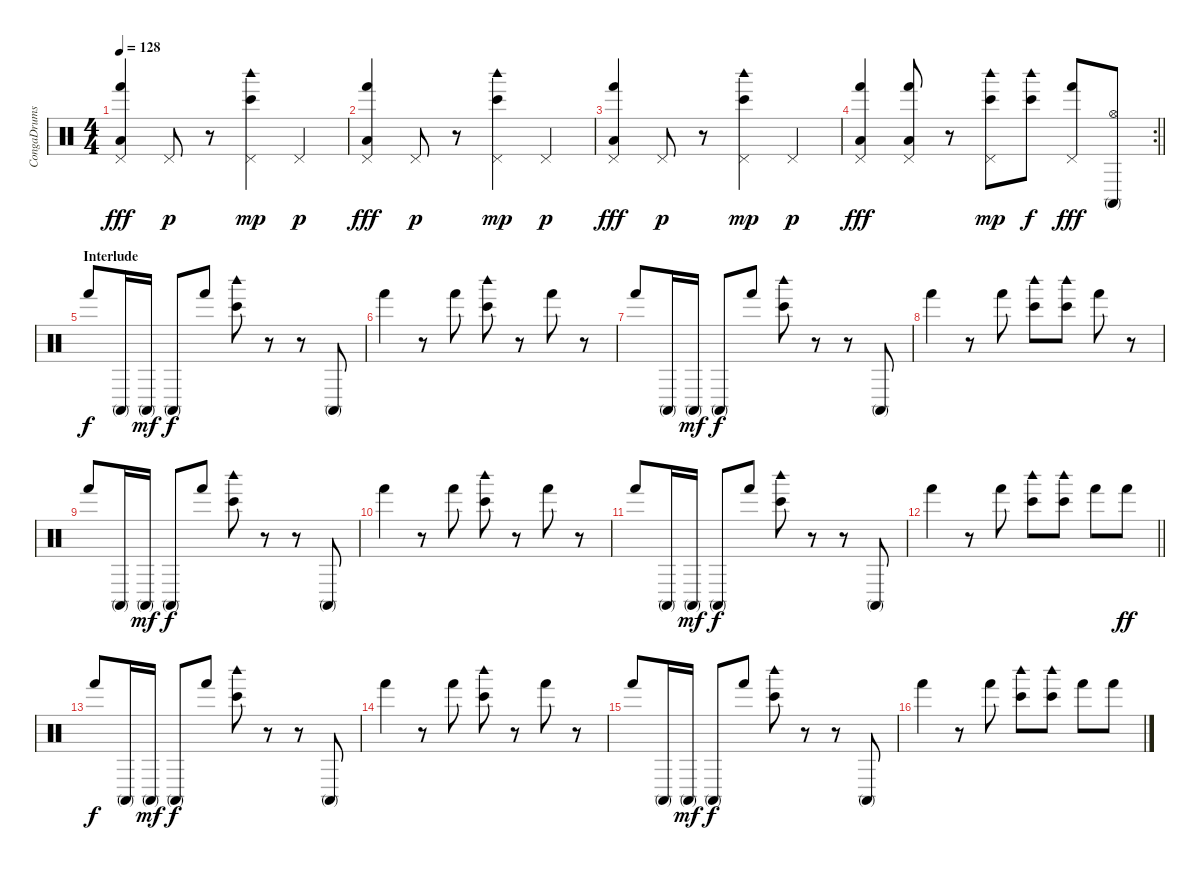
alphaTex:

\track ("CongaDrums" "CongaDrums") {instrument percussion}
\staff {score}
\articulation defaults
\ts (4 4)
\tempo 128
\clef neutral
\ks c
("Pedal Hi-Hat (hit)" "Hand (hit)" "Low Floor Tom (hit)").4{dy fff} "Pedal Hi-Hat (hit)".8{dy p} r.8 ("Bongo High (hit)" "Woodblock high (hit)" "Pedal Hi-Hat (hit)").4{dy mp} "Pedal Hi-Hat (hit)".4{dy p} |
("Pedal Hi-Hat (hit)" "Hand (hit)" "Low Floor Tom (hit)").4{dy fff} "Pedal Hi-Hat (hit)".8{dy p} r.8 ("Bongo High (hit)" "Woodblock high (hit)" "Pedal Hi-Hat (hit)").4{dy mp} "Pedal Hi-Hat (hit)".4{dy p} |
("Pedal Hi-Hat (hit)" "Hand (hit)" "Low Floor Tom (hit)").4{dy fff} "Pedal Hi-Hat (hit)".8{dy p} r.8 ("Bongo High (hit)" "Woodblock high (hit)" "Pedal Hi-Hat (hit)").4{dy mp} "Pedal Hi-Hat (hit)".4{dy p} |
\rc 2
\barLineRight lightlight
("Pedal Hi-Hat (hit)" "Hand (hit)" "Low Floor Tom (hit)").4{dy fff} ("Pedal Hi-Hat (hit)" "Hand (hit)" "Low Floor Tom (hit)").8 r.8 ("Bongo High (hit)" "Woodblock high (hit)" "Pedal Hi-Hat (hit)").8{dy mp} ("Bongo High (hit)" "Woodblock high (hit)").8{dy f} ("Pedal Hi-Hat (hit)" "Hand (hit)").8{dy fff} ("Hi-Hat (open)" "Conga high (mute)").8 |
\section ("" "Interlude")
"Hand (hit)".8{dy f} "Conga high (mute)".16 "Conga high (mute)".16{dy mf} "Conga high (mute)".8{dy f} "Hand (hit)".8 ("Bongo High (hit)" "Woodblock high (hit)").8 r.8 r.8 "Conga high (mute)".8 |
"Hand (hit)".4 r.8 "Hand (hit)".8 ("Bongo High (hit)" "Woodblock high (hit)").8 r.8 "Hand (hit)".8 r.8 |
"Hand (hit)".8 "Conga high (mute)".16 "Conga high (mute)".16{dy mf} "Conga high (mute)".8{dy f} "Hand (hit)".8 ("Bongo High (hit)" "Woodblock high (hit)").8 r.8 r.8 "Conga high (mute)".8 |
"Hand (hit)".4 r.8 "Hand (hit)".8 ("Bongo High (hit)" "Woodblock high (hit)").8 ("Bongo High (hit)" "Woodblock high (hit)").8 "Hand (hit)".8 r.8 |
"Hand (hit)".8 "Conga high (mute)".16 "Conga high (mute)".16{dy mf} "Conga high (mute)".8{dy f} "Hand (hit)".8 ("Bongo High (hit)" "Woodblock high (hit)").8 r.8 r.8 "Conga high (mute)".8 |
"Hand (hit)".4 r.8 "Hand (hit)".8 ("Bongo High (hit)" "Woodblock high (hit)").8 r.8 "Hand (hit)".8 r.8 |
"Hand (hit)".8 "Conga high (mute)".16 "Conga high (mute)".16{dy mf} "Conga high (mute)".8{dy f} "Hand (hit)".8 ("Bongo High (hit)" "Woodblock high (hit)").8 r.8 r.8 "Conga high (mute)".8 |
\barLineRight lightlight "Hand (hit)".4
r.8 "Hand (hit)".8 ("Bongo High (hit)" "Woodblock high (hit)").8 ("Bongo High (hit)" "Woodblock high (hit)").8 "Hand (hit)".8 "Hand (hit)".8{dy ff} |
"Hand (hit)".8{dy f} "Conga high (mute)".16 "Conga high (mute)".16{dy mf} "Conga high (mute)".8{dy f} "Hand (hit)".8 ("Bongo High (hit)" "Woodblock high (hit)").8 r.8 r.8 "Conga high (mute)".8 |
"Hand (hit)".4 r.8 "Hand (hit)".8 ("Bongo High (hit)" "Woodblock high (hit)").8 r.8 "Hand (hit)".8 r.8 |
"Hand (hit)".8 "Conga high (mute)".16 "Conga high (mute)".16{dy mf} "Conga high (mute)".8{dy f} "Hand (hit)".8 ("Bongo High (hit)" "Woodblock high (hit)").8 r.8 r.8 "Conga high (mute)".8 |
"Hand (hit)".4 r.8 "Hand (hit)".8 ("Bongo High (hit)" "Woodblock high (hit)").8 ("Bongo High (hit)" "Woodblock high (hit)").8 "Hand (hit)".8 "Hand (hit)".8
